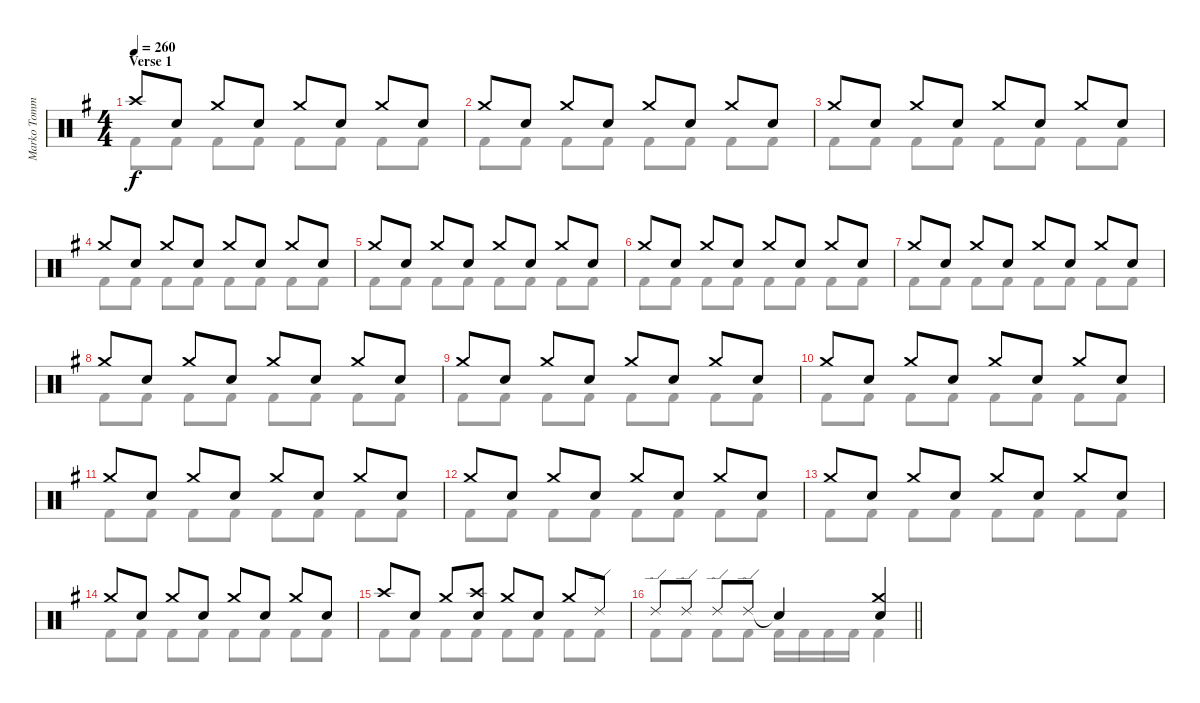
\track ("Marko Tommila (drums)" "Marko Tomm") {instrument percussion}
\staff {score}
\articulation defaults
\voice
\ts (4 4)
\section ("" "Verse 1")
\tempo 260
\clef neutral
\ks eminor "Crash high (hit)".8{dy f} "Electric Snare (hit)".8 "Crash medium (hit)".8 "Electric Snare (hit)".8 "Crash medium (hit)".8 "Electric Snare (hit)".8 "Crash medium (hit)".8 "Electric Snare (hit)".8
|
"Crash medium (hit)".8 "Electric Snare (hit)".8 "Crash medium (hit)".8 "Electric Snare (hit)".8 "Crash medium (hit)".8 "Electric Snare (hit)".8 "Crash medium (hit)".8 "Electric Snare (hit)".8 |
"Crash medium (hit)".8 "Electric Snare (hit)".8 "Crash medium (hit)".8 "Electric Snare (hit)".8 "Crash medium (hit)".8 "Electric Snare (hit)".8 "Crash medium (hit)".8 "Electric Snare (hit)".8 |
"Crash medium (hit)".8 "Electric Snare (hit)".8 "Crash medium (hit)".8 "Electric Snare (hit)".8 "Crash medium (hit)".8 "Electric Snare (hit)".8 "Crash medium (hit)".8 "Electric Snare (hit)".8 |
"Crash medium (hit)".8 "Electric Snare (hit)".8 "Crash medium (hit)".8 "Electric Snare (hit)".8 "Crash medium (hit)".8 "Electric Snare (hit)".8 "Crash medium (hit)".8 "Electric Snare (hit)".8 |
"Crash medium (hit)".8 "Electric Snare (hit)".8 "Crash medium (hit)".8 "Electric Snare (hit)".8 "Crash medium (hit)".8 "Electric Snare (hit)".8 "Crash medium (hit)".8 "Electric Snare (hit)".8 |
"Crash medium (hit)".8 "Electric Snare (hit)".8 "Crash medium (hit)".8 "Electric Snare (hit)".8 "Crash medium (hit)".8 "Electric Snare (hit)".8 "Crash medium (hit)".8 "Electric Snare (hit)".8 |
"Crash medium (hit)".8 "Electric Snare (hit)".8 "Crash medium (hit)".8 "Electric Snare (hit)".8 "Crash medium (hit)".8 "Electric Snare (hit)".8 "Crash medium (hit)".8 "Electric Snare (hit)".8 |
"Crash medium (hit)".8 "Electric Snare (hit)".8 "Crash medium (hit)".8 "Electric Snare (hit)".8 "Crash medium (hit)".8 "Electric Snare (hit)".8 "Crash medium (hit)".8 "Electric Snare (hit)".8 |
"Crash medium (hit)".8 "Electric Snare (hit)".8 "Crash medium (hit)".8 "Electric Snare (hit)".8 "Crash medium (hit)".8 "Electric Snare (hit)".8 "Crash medium (hit)".8 "Electric Snare (hit)".8 |
"Crash medium (hit)".8 "Electric Snare (hit)".8 "Crash medium (hit)".8 "Electric Snare (hit)".8 "Crash medium (hit)".8 "Electric Snare (hit)".8 "Crash medium (hit)".8 "Electric Snare (hit)".8 |
"Crash medium (hit)".8 "Electric Snare (hit)".8 "Crash medium (hit)".8 "Electric Snare (hit)".8 "Crash medium (hit)".8 "Electric Snare (hit)".8 "Crash medium (hit)".8 "Electric Snare (hit)".8 |
"Crash medium (hit)".8 "Electric Snare (hit)".8 "Crash medium (hit)".8 "Electric Snare (hit)".8 "Crash medium (hit)".8 "Electric Snare (hit)".8 "Crash medium (hit)".8 "Electric Snare (hit)".8 |
"Crash medium (hit)".8 "Electric Snare (hit)".8 "Crash medium (hit)".8 "Electric Snare (hit)".8 "Crash medium (hit)".8 "Electric Snare (hit)".8 "Crash medium (hit)".8 "Electric Snare (hit)".8 |
"Crash high (hit)".8 "Electric Snare (hit)".8 "Crash medium (hit)".8 ("Crash high (hit)" "Electric Snare (hit)").8 "Crash medium (hit)".8 "Electric Snare (hit)".8 "Crash medium (hit)".8 "Ride (edge) 2".8 |
\barLineRight lightlight "Ride (edge) 2".8 "Ride (edge) 2".8 "Ride (edge) 2".8 "Ride (edge) 2".8 "Snare (hit)"{t}.4
("Crash medium (hit)" "Electric Snare (hit)").4
\voice
\clef neutral
\ottava regular
\simile none
\ks eminor "Kick (hit) 2".8{dy f} "Kick (hit) 2".8 "Kick (hit) 2".8 "Kick (hit) 2".8 "Kick (hit) 2".8 "Kick (hit) 2".8 "Kick (hit) 2".8 "Kick (hit) 2".8
|
"Kick (hit) 2".8 "Kick (hit) 2".8 "Kick (hit) 2".8 "Kick (hit) 2".8 "Kick (hit) 2".8 "Kick (hit) 2".8 "Kick (hit) 2".8 "Kick (hit) 2".8 |
"Kick (hit) 2".8 "Kick (hit) 2".8 "Kick (hit) 2".8 "Kick (hit) 2".8 "Kick (hit) 2".8 "Kick (hit) 2".8 "Kick (hit) 2".8 "Kick (hit) 2".8 |
"Kick (hit) 2".8 "Kick (hit) 2".8 "Kick (hit) 2".8 "Kick (hit) 2".8 "Kick (hit) 2".8 "Kick (hit) 2".8 "Kick (hit) 2".8 "Kick (hit) 2".8 |
"Kick (hit) 2".8 "Kick (hit) 2".8 "Kick (hit) 2".8 "Kick (hit) 2".8 "Kick (hit) 2".8 "Kick (hit) 2".8 "Kick (hit) 2".8 "Kick (hit) 2".8 |
"Kick (hit) 2".8 "Kick (hit) 2".8 "Kick (hit) 2".8 "Kick (hit) 2".8 "Kick (hit) 2".8 "Kick (hit) 2".8 "Kick (hit) 2".8 "Kick (hit) 2".8 |
"Kick (hit) 2".8 "Kick (hit) 2".8 "Kick (hit) 2".8 "Kick (hit) 2".8 "Kick (hit) 2".8 "Kick (hit) 2".8 "Kick (hit) 2".8 "Kick (hit) 2".8 |
"Kick (hit) 2".8 "Kick (hit) 2".8 "Kick (hit) 2".8 "Kick (hit) 2".8 "Kick (hit) 2".8 "Kick (hit) 2".8 "Kick (hit) 2".8 "Kick (hit) 2".8 |
"Kick (hit) 2".8 "Kick (hit) 2".8 "Kick (hit) 2".8 "Kick (hit) 2".8 "Kick (hit) 2".8 "Kick (hit) 2".8 "Kick (hit) 2".8 "Kick (hit) 2".8 |
"Kick (hit) 2".8 "Kick (hit) 2".8 "Kick (hit) 2".8 "Kick (hit) 2".8 "Kick (hit) 2".8 "Kick (hit) 2".8 "Kick (hit) 2".8 "Kick (hit) 2".8 |
"Kick (hit) 2".8 "Kick (hit) 2".8 "Kick (hit) 2".8 "Kick (hit) 2".8 "Kick (hit) 2".8 "Kick (hit) 2".8 "Kick (hit) 2".8 "Kick (hit) 2".8 |
"Kick (hit) 2".8 "Kick (hit) 2".8 "Kick (hit) 2".8 "Kick (hit) 2".8 "Kick (hit) 2".8 "Kick (hit) 2".8 "Kick (hit) 2".8 "Kick (hit) 2".8 |
"Kick (hit) 2".8 "Kick (hit) 2".8 "Kick (hit) 2".8 "Kick (hit) 2".8 "Kick (hit) 2".8 "Kick (hit) 2".8 "Kick (hit) 2".8 "Kick (hit) 2".8 |
"Kick (hit) 2".8 "Kick (hit) 2".8 "Kick (hit) 2".8 "Kick (hit) 2".8 "Kick (hit) 2".8 "Kick (hit) 2".8 "Kick (hit) 2".8 "Kick (hit) 2".8 |
"Kick (hit) 2".8 "Kick (hit) 2".8 "Kick (hit) 2".8 "Kick (hit) 2".8 "Kick (hit) 2".8 "Kick (hit) 2".8 "Kick (hit) 2".8 "Kick (hit) 2".8 |
\barLineRight lightlight "Kick (hit) 2".8 "Kick (hit) 2".8 "Kick (hit) 2".8 "Kick (hit) 2".8 "Kick (hit) 2".16 "Kick (hit) 2".16 "Kick (hit) 2".16 "Kick (hit) 2".16 "Kick (hit) 2".4
